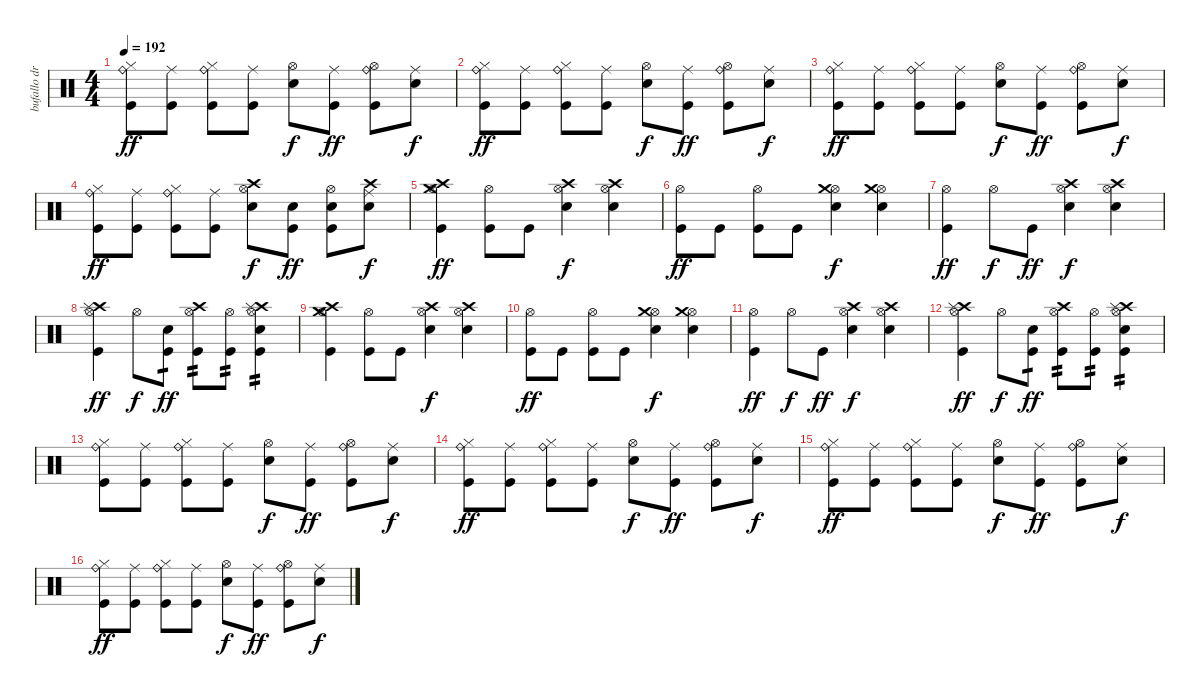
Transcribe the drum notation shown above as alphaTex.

\track ("bufallo drums" "bufallo dr") {instrument percussion}
\staff {score}
\articulation defaults
\ts (4 4)
\tempo 192
\clef neutral
\ks c
("Hi-Hat (closed)" "Ride (bell)" "Kick (hit)").8{dy ff} ("Ride (middle)" "Kick (hit)").8 ("Hi-Hat (closed)" "Ride (bell)" "Kick (hit)").8 ("Ride (middle)" "Kick (hit)").8 ("Hi-Hat (open)" "Electric Snare (hit)").8{dy f} ("Ride (middle)" "Kick (hit)").8{dy ff} ("Hi-Hat (open)" "Ride (bell)" "Kick (hit)").8 ("Ride (middle)" "Electric Snare (hit)").8{dy f} |
("Hi-Hat (closed)" "Ride (bell)" "Kick (hit)").8{dy ff} ("Ride (middle)" "Kick (hit)").8 ("Hi-Hat (closed)" "Ride (bell)" "Kick (hit)").8 ("Ride (middle)" "Kick (hit)").8 ("Hi-Hat (open)" "Electric Snare (hit)").8{dy f} ("Ride (middle)" "Kick (hit)").8{dy ff} ("Hi-Hat (open)" "Ride (bell)" "Kick (hit)").8 ("Ride (middle)" "Electric Snare (hit)").8{dy f} |
("Hi-Hat (closed)" "Ride (bell)" "Kick (hit)").8{dy ff} ("Ride (middle)" "Kick (hit)").8 ("Hi-Hat (closed)" "Ride (bell)" "Kick (hit)").8 ("Ride (middle)" "Kick (hit)").8 ("Hi-Hat (open)" "Electric Snare (hit)").8{dy f} ("Ride (middle)" "Kick (hit)").8{dy ff} ("Hi-Hat (open)" "Ride (bell)" "Kick (hit)").8 ("Ride (middle)" "Electric Snare (hit)").8{dy f} |
("Hi-Hat (closed)" "Ride (bell)" "Kick (hit)").8{dy ff} ("Ride (middle)" "Kick (hit)").8 ("Hi-Hat (closed)" "Ride (bell)" "Kick (hit)").8 ("Ride (middle)" "Kick (hit)").8 ("Hi-Hat (open)" "Electric Snare (hit)" "Crash high (hit)").8{dy f} ("Electric Snare (hit)" "Kick (hit)").8{dy ff} ("Hi-Hat (open)" "Electric Snare (hit)" "Kick (hit)").8 ("Ride (middle)" "Electric Snare (hit)" "Crash high (hit)").8{dy f} |
("Hi-Hat (open)" "Crash medium (hit)" "Crash high (hit)" "Kick (hit)").4{dy ff} ("Hi-Hat (open)" "Kick (hit)").8 "Kick (hit)".8 ("Hi-Hat (open)" "Electric Snare (hit)" "Crash high (hit)").4{dy f} ("Hi-Hat (open)" "Electric Snare (hit)" "Crash high (hit)").4 |
("Hi-Hat (open)" "Kick (hit)").8{dy ff} "Kick (hit)".8 ("Hi-Hat (open)" "Kick (hit)").8 "Kick (hit)".8 ("Hi-Hat (open)" "Electric Snare (hit)" "Crash medium (hit)").4{dy f} ("Hi-Hat (open)" "Electric Snare (hit)" "Crash medium (hit)").4 |
("Hi-Hat (open)" "Kick (hit)").4{dy ff} "Hi-Hat (open)".8{dy f} "Kick (hit)".8{dy ff} ("Hi-Hat (open)" "Electric Snare (hit)" "Crash high (hit)").4{dy f} ("Hi-Hat (open)" "Electric Snare (hit)" "Crash high (hit)").4 |
("Hi-Hat (open)" "Crash high (hit)" "Splash (hit)" "Kick (hit)").4{dy ff} "Hi-Hat (open)".8{dy f} ("Electric Snare (hit)" "Kick (hit)").8{tp 1 dy ff} ("Hi-Hat (open)" "Crash high (hit)" "Kick (hit)").8{tp 2} ("Hi-Hat (open)" "Kick (hit)").8{tp 2} ("Hi-Hat (open)" "Crash high (hit)" "Splash (hit)" "Electric Snare (hit)" "Kick (hit)").4{tp 2} |
("Hi-Hat (open)" "Crash medium (hit)" "Crash high (hit)" "Kick (hit)").4 ("Hi-Hat (open)" "Kick (hit)").8 "Kick (hit)".8 ("Hi-Hat (open)" "Electric Snare (hit)" "Crash high (hit)").4{dy f} ("Hi-Hat (open)" "Electric Snare (hit)" "Crash high (hit)").4 |
("Hi-Hat (open)" "Kick (hit)").8{dy ff} "Kick (hit)".8 ("Hi-Hat (open)" "Kick (hit)").8 "Kick (hit)".8 ("Hi-Hat (open)" "Electric Snare (hit)" "Crash medium (hit)").4{dy f} ("Hi-Hat (open)" "Electric Snare (hit)" "Crash medium (hit)").4 |
("Hi-Hat (open)" "Kick (hit)").4{dy ff} "Hi-Hat (open)".8{dy f} "Kick (hit)".8{dy ff} ("Hi-Hat (open)" "Electric Snare (hit)" "Crash high (hit)").4{dy f} ("Hi-Hat (open)" "Electric Snare (hit)" "Crash high (hit)").4 |
("Hi-Hat (open)" "Crash high (hit)" "Splash (hit)" "Kick (hit)").4{dy ff} "Hi-Hat (open)".8{dy f} ("Electric Snare (hit)" "Kick (hit)").8{tp 1 dy ff} ("Hi-Hat (open)" "Crash high (hit)" "Kick (hit)").8{tp 2} ("Hi-Hat (open)" "Kick (hit)").8{tp 2} ("Hi-Hat (open)" "Crash high (hit)" "Splash (hit)" "Electric Snare (hit)" "Kick (hit)").4{tp 2} |
("Hi-Hat (closed)" "Ride (bell)" "Kick (hit)").8 ("Ride (middle)" "Kick (hit)").8 ("Hi-Hat (closed)" "Ride (bell)" "Kick (hit)").8 ("Ride (middle)" "Kick (hit)").8 ("Hi-Hat (open)" "Electric Snare (hit)").8{dy f} ("Ride (middle)" "Kick (hit)").8{dy ff} ("Hi-Hat (open)" "Ride (bell)" "Kick (hit)").8 ("Ride (middle)" "Electric Snare (hit)").8{dy f} |
("Hi-Hat (closed)" "Ride (bell)" "Kick (hit)").8{dy ff} ("Ride (middle)" "Kick (hit)").8 ("Hi-Hat (closed)" "Ride (bell)" "Kick (hit)").8 ("Ride (middle)" "Kick (hit)").8 ("Hi-Hat (open)" "Electric Snare (hit)").8{dy f} ("Ride (middle)" "Kick (hit)").8{dy ff} ("Hi-Hat (open)" "Ride (bell)" "Kick (hit)").8 ("Ride (middle)" "Electric Snare (hit)").8{dy f} |
("Hi-Hat (closed)" "Ride (bell)" "Kick (hit)").8{dy ff} ("Ride (middle)" "Kick (hit)").8 ("Hi-Hat (closed)" "Ride (bell)" "Kick (hit)").8 ("Ride (middle)" "Kick (hit)").8 ("Hi-Hat (open)" "Electric Snare (hit)").8{dy f} ("Ride (middle)" "Kick (hit)").8{dy ff} ("Hi-Hat (open)" "Ride (bell)" "Kick (hit)").8 ("Ride (middle)" "Electric Snare (hit)").8{dy f} |
("Hi-Hat (closed)" "Ride (bell)" "Kick (hit)").8{dy ff} ("Ride (middle)" "Kick (hit)").8 ("Hi-Hat (closed)" "Ride (bell)" "Kick (hit)").8 ("Ride (middle)" "Kick (hit)").8 ("Hi-Hat (open)" "Electric Snare (hit)").8{dy f} ("Ride (middle)" "Kick (hit)").8{dy ff} ("Hi-Hat (open)" "Ride (bell)" "Kick (hit)").8 ("Ride (middle)" "Electric Snare (hit)").8{dy f}
